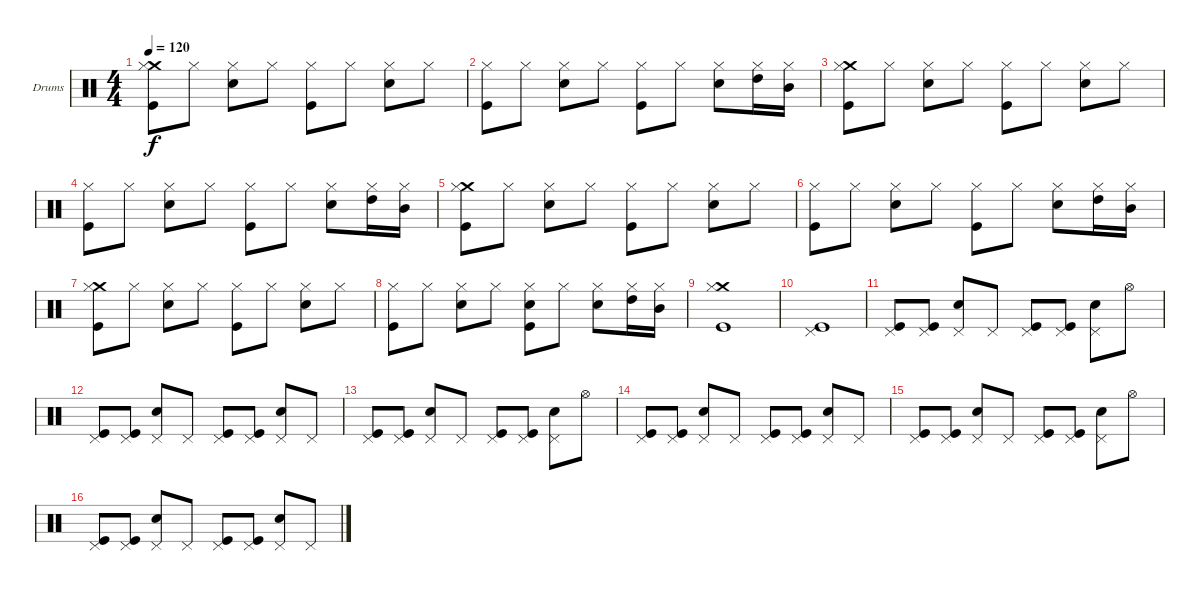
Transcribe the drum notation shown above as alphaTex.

\bracketExtendMode groupsimilarinstruments
\firstSystemTrackNameOrientation horizontal
\otherSystemsTrackNameOrientation horizontal
\track ("Drumkit" "Drums") {instrument percussion}
\staff {score}
\articulation defaults
\ts (4 4)
\tempo 120
\clef neutral
\ks c
("Crash medium (hit)" "Kick (hit)" "Hi-Hat (closed)").8{dy f} "Hi-Hat (closed)".8 ("Snare (hit) 2" "Hi-Hat (closed)").8 "Hi-Hat (closed)".8 ("Kick (hit)" "Hi-Hat (closed)").8 "Hi-Hat (closed)".8 ("Snare (hit) 2" "Hi-Hat (closed)").8 "Hi-Hat (closed)".8 |
("Kick (hit)" "Hi-Hat (closed)").8 "Hi-Hat (closed)".8 ("Snare (hit) 2" "Hi-Hat (closed)").8 "Hi-Hat (closed)".8 ("Kick (hit)" "Hi-Hat (closed)").8 "Hi-Hat (closed)".8 ("Snare (hit) 2" "Hi-Hat (closed)").8 ("High Tom (hit)" "Hi-Hat (closed)").16 ("Mid Tom (hit)" "Hi-Hat (closed)").16 |
("Crash medium (hit)" "Kick (hit)" "Hi-Hat (closed)").8 "Hi-Hat (closed)".8 ("Snare (hit) 2" "Hi-Hat (closed)").8 "Hi-Hat (closed)".8 ("Kick (hit)" "Hi-Hat (closed)").8 "Hi-Hat (closed)".8 ("Snare (hit) 2" "Hi-Hat (closed)").8 "Hi-Hat (closed)".8 |
("Kick (hit)" "Hi-Hat (closed)").8 "Hi-Hat (closed)".8 ("Snare (hit) 2" "Hi-Hat (closed)").8 "Hi-Hat (closed)".8 ("Kick (hit)" "Hi-Hat (closed)").8 "Hi-Hat (closed)".8 ("Snare (hit) 2" "Hi-Hat (closed)").8 ("High Tom (hit)" "Hi-Hat (closed)").16 ("Mid Tom (hit)" "Hi-Hat (closed)").16 |
("Crash medium (hit)" "Kick (hit)" "Hi-Hat (closed)").8 "Hi-Hat (closed)".8 ("Snare (hit) 2" "Hi-Hat (closed)").8 "Hi-Hat (closed)".8 ("Kick (hit)" "Hi-Hat (closed)").8 "Hi-Hat (closed)".8 ("Snare (hit) 2" "Hi-Hat (closed)").8 "Hi-Hat (closed)".8 |
("Kick (hit)" "Hi-Hat (closed)").8 "Hi-Hat (closed)".8 ("Snare (hit) 2" "Hi-Hat (closed)").8 "Hi-Hat (closed)".8 ("Kick (hit)" "Hi-Hat (closed)").8 "Hi-Hat (closed)".8 ("Snare (hit) 2" "Hi-Hat (closed)").8 ("High Tom (hit)" "Hi-Hat (closed)").16 ("Mid Tom (hit)" "Hi-Hat (closed)").16 |
("Crash medium (hit)" "Kick (hit)" "Hi-Hat (closed)").8 "Hi-Hat (closed)".8 ("Snare (hit) 2" "Hi-Hat (closed)").8 "Hi-Hat (closed)".8 ("Kick (hit)" "Hi-Hat (closed)").8 "Hi-Hat (closed)".8 ("Snare (hit) 2" "Hi-Hat (closed)").8 "Hi-Hat (closed)".8 |
("Kick (hit)" "Hi-Hat (closed)").8 "Hi-Hat (closed)".8 ("Snare (hit) 2" "Hi-Hat (closed)").8 "Hi-Hat (closed)".8 ("Snare (hit) 2" "Kick (hit)" "Hi-Hat (closed)").8 "Hi-Hat (closed)".8 ("Snare (hit) 2" "Hi-Hat (closed)").8 ("High Tom (hit)" "Hi-Hat (closed)").16 ("Mid Tom (hit)" "Hi-Hat (closed)").16 |
("Crash medium (hit)" "Kick (hit)" "Hi-Hat (closed)").1 |
("Pedal Hi-Hat (hit)" "Kick (hit)").1 |
("Pedal Hi-Hat (hit)" "Kick (hit)").8 ("Pedal Hi-Hat (hit)" "Kick (hit)").8 ("Pedal Hi-Hat (hit)" "Snare (hit) 2").8 "Pedal Hi-Hat (hit)".8 ("Pedal Hi-Hat (hit)" "Kick (hit)").8 ("Pedal Hi-Hat (hit)" "Kick (hit)").8 ("Pedal Hi-Hat (hit)" "Snare (hit) 2").8 "Hi-Hat (open)".8 |
("Pedal Hi-Hat (hit)" "Kick (hit)").8 ("Pedal Hi-Hat (hit)" "Kick (hit)").8 ("Pedal Hi-Hat (hit)" "Snare (hit) 2").8 "Pedal Hi-Hat (hit)".8 ("Pedal Hi-Hat (hit)" "Kick (hit)").8 ("Pedal Hi-Hat (hit)" "Kick (hit)").8 ("Pedal Hi-Hat (hit)" "Snare (hit) 2").8 "Pedal Hi-Hat (hit)".8 |
("Pedal Hi-Hat (hit)" "Kick (hit)").8 ("Pedal Hi-Hat (hit)" "Kick (hit)").8 ("Pedal Hi-Hat (hit)" "Snare (hit) 2").8 "Pedal Hi-Hat (hit)".8 ("Pedal Hi-Hat (hit)" "Kick (hit)").8 ("Pedal Hi-Hat (hit)" "Kick (hit)").8 ("Pedal Hi-Hat (hit)" "Snare (hit) 2").8 "Hi-Hat (open)".8 |
("Pedal Hi-Hat (hit)" "Kick (hit)").8 ("Pedal Hi-Hat (hit)" "Kick (hit)").8 ("Pedal Hi-Hat (hit)" "Snare (hit) 2").8 "Pedal Hi-Hat (hit)".8 ("Pedal Hi-Hat (hit)" "Kick (hit)").8 ("Pedal Hi-Hat (hit)" "Kick (hit)").8 ("Pedal Hi-Hat (hit)" "Snare (hit) 2").8 "Pedal Hi-Hat (hit)".8 |
("Pedal Hi-Hat (hit)" "Kick (hit)").8 ("Pedal Hi-Hat (hit)" "Kick (hit)").8 ("Pedal Hi-Hat (hit)" "Snare (hit) 2").8 "Pedal Hi-Hat (hit)".8 ("Pedal Hi-Hat (hit)" "Kick (hit)").8 ("Pedal Hi-Hat (hit)" "Kick (hit)").8 ("Pedal Hi-Hat (hit)" "Snare (hit) 2").8 "Hi-Hat (open)".8 |
("Pedal Hi-Hat (hit)" "Kick (hit)").8 ("Pedal Hi-Hat (hit)" "Kick (hit)").8 ("Pedal Hi-Hat (hit)" "Snare (hit) 2").8 "Pedal Hi-Hat (hit)".8 ("Pedal Hi-Hat (hit)" "Kick (hit)").8 ("Pedal Hi-Hat (hit)" "Kick (hit)").8 ("Pedal Hi-Hat (hit)" "Snare (hit) 2").8 "Pedal Hi-Hat (hit)".8
